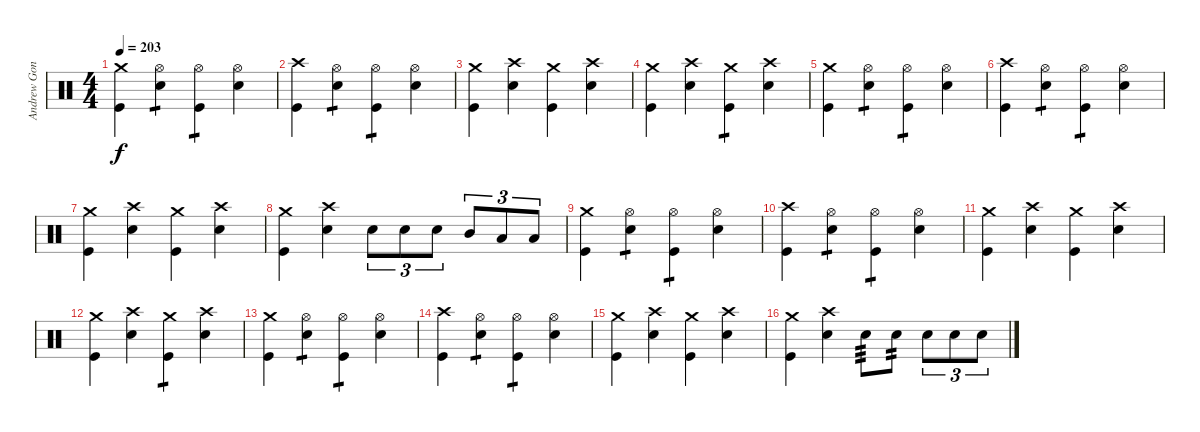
\track ("Andrew Gonzales" "Andrew Gon") {instrument percussion}
\staff {score}
\articulation defaults
\ts (4 4)
\tempo 203
\clef neutral
\ks c
("Crash medium (hit)" "Kick (hit)").4{dy f} ("Hi-Hat (open)" "Electric Snare (hit)").4{tp 1} ("Hi-Hat (open)" "Kick (hit)").4{tp 1} ("Hi-Hat (open)" "Electric Snare (hit)").4 |
("Crash high (hit)" "Kick (hit)").4 ("Hi-Hat (open)" "Electric Snare (hit)").4{tp 1} ("Hi-Hat (open)" "Kick (hit)").4{tp 1} ("Hi-Hat (open)" "Electric Snare (hit)").4 |
("Crash medium (hit)" "Kick (hit)").4 ("Crash high (hit)" "Electric Snare (hit)").4 ("Crash medium (hit)" "Kick (hit)").4 ("Crash high (hit)" "Electric Snare (hit)").4 |
("Crash medium (hit)" "Kick (hit)").4 ("Crash high (hit)" "Electric Snare (hit)").4 ("Crash medium (hit)" "Kick (hit)").4{tp 1} ("Crash high (hit)" "Electric Snare (hit)").4 |
("Crash medium (hit)" "Kick (hit)").4 ("Hi-Hat (open)" "Electric Snare (hit)").4{tp 1} ("Hi-Hat (open)" "Kick (hit)").4{tp 1} ("Hi-Hat (open)" "Electric Snare (hit)").4 |
("Crash high (hit)" "Kick (hit)").4 ("Hi-Hat (open)" "Electric Snare (hit)").4{tp 1} ("Hi-Hat (open)" "Kick (hit)").4{tp 1} ("Hi-Hat (open)" "Electric Snare (hit)").4 |
("Crash medium (hit)" "Kick (hit)").4 ("Crash high (hit)" "Electric Snare (hit)").4 ("Crash medium (hit)" "Kick (hit)").4 ("Crash high (hit)" "Electric Snare (hit)").4 |
("Crash medium (hit)" "Kick (hit)").4 ("Crash high (hit)" "Electric Snare (hit)").4 "Electric Snare (hit)".8{tu (3 2)} "Electric Snare (hit)".8{tu (3 2)} "Electric Snare (hit)".8{tu (3 2)} "Mid Tom (hit)".8{tu (3 2)} "Low Tom (hit)".8{tu (3 2)} "Low Floor Tom (hit)".8{tu (3 2)} |
("Crash medium (hit)" "Kick (hit)").4 ("Hi-Hat (open)" "Electric Snare (hit)").4{tp 1} ("Hi-Hat (open)" "Kick (hit)").4{tp 1} ("Hi-Hat (open)" "Electric Snare (hit)").4 |
("Crash high (hit)" "Kick (hit)").4 ("Hi-Hat (open)" "Electric Snare (hit)").4{tp 1} ("Hi-Hat (open)" "Kick (hit)").4{tp 1} ("Hi-Hat (open)" "Electric Snare (hit)").4 |
("Crash medium (hit)" "Kick (hit)").4 ("Crash high (hit)" "Electric Snare (hit)").4 ("Crash medium (hit)" "Kick (hit)").4 ("Crash high (hit)" "Electric Snare (hit)").4 |
("Crash medium (hit)" "Kick (hit)").4 ("Crash high (hit)" "Electric Snare (hit)").4 ("Crash medium (hit)" "Kick (hit)").4{tp 1} ("Crash high (hit)" "Electric Snare (hit)").4 |
("Crash medium (hit)" "Kick (hit)").4 ("Hi-Hat (open)" "Electric Snare (hit)").4{tp 1} ("Hi-Hat (open)" "Kick (hit)").4{tp 1} ("Hi-Hat (open)" "Electric Snare (hit)").4 |
("Crash high (hit)" "Kick (hit)").4 ("Hi-Hat (open)" "Electric Snare (hit)").4{tp 1} ("Hi-Hat (open)" "Kick (hit)").4{tp 1} ("Hi-Hat (open)" "Electric Snare (hit)").4 |
("Crash medium (hit)" "Kick (hit)").4 ("Crash high (hit)" "Electric Snare (hit)").4 ("Crash medium (hit)" "Kick (hit)").4 ("Crash high (hit)" "Electric Snare (hit)").4 |
("Crash medium (hit)" "Kick (hit)").4 ("Crash high (hit)" "Electric Snare (hit)").4 "Electric Snare (hit)".8{tp 3} "Electric Snare (hit)".8{tp 2} "Electric Snare (hit)".8{tu (3 2)} "Electric Snare (hit)".8{tu (3 2)} "Electric Snare (hit)".8{tu (3 2)}
